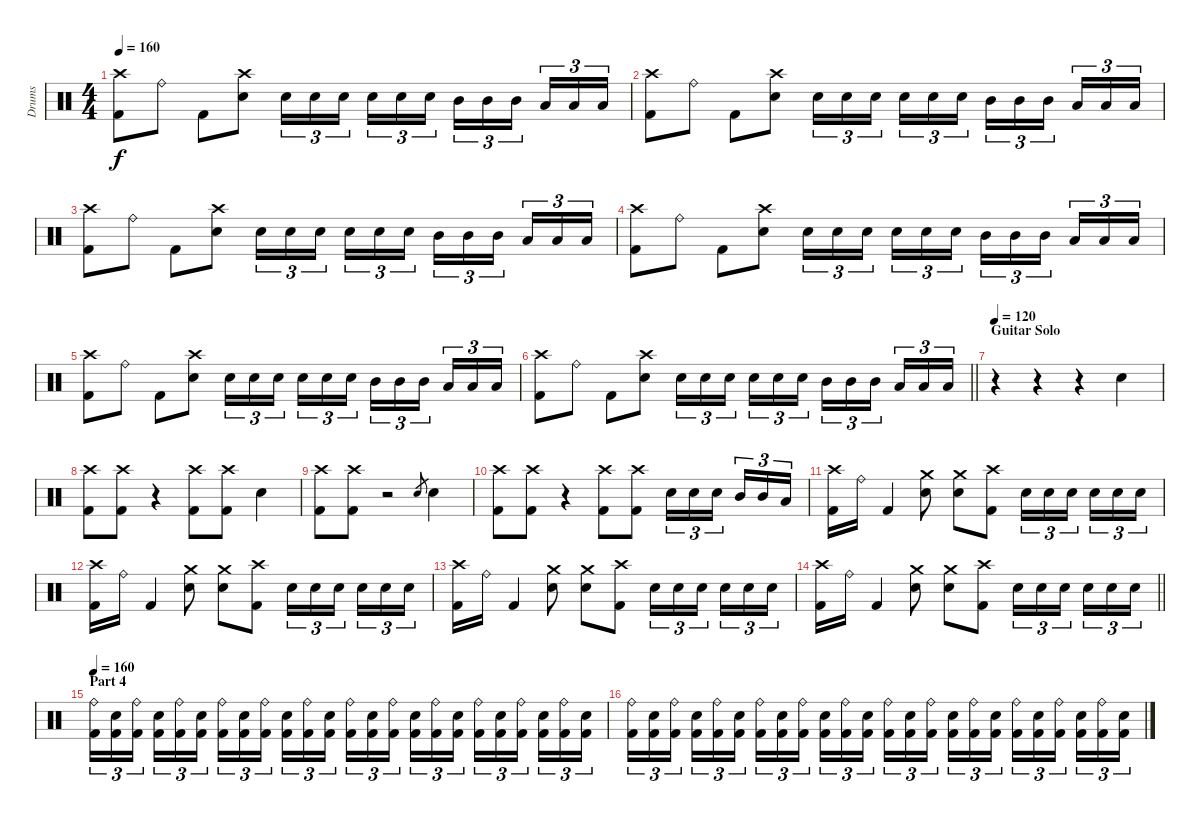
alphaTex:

\track ("Drums" "Drums") {instrument percussion}
\staff {score}
\articulation defaults
\ts (4 4)
\tempo 160
\clef neutral
\ks c
("Crash high (hit)" "Kick (hit) 2").8{dy f} "Ride (bell)".8 "Kick (hit) 2".8 ("Crash high (hit)" "Electric Snare (hit)").8 "Electric Snare (hit)".16{tu (3 2)} "Electric Snare (hit)".16{tu (3 2)} "Electric Snare (hit)".16{tu (3 2) beam splitsecondary} "Electric Snare (hit)".16{tu (3 2)} "Electric Snare (hit)".16{tu (3 2)} "Electric Snare (hit)".16{tu (3 2)} "Mid Tom (hit)".16{tu (3 2)} "Mid Tom (hit)".16{tu (3 2)} "Mid Tom (hit)".16{tu (3 2) beam splitsecondary} "Low Tom (hit)".16{tu (3 2)} "Low Tom (hit)".16{tu (3 2)} "Low Tom (hit)".16{tu (3 2)} |
("Crash high (hit)" "Kick (hit) 2").8 "Ride (bell)".8 "Kick (hit) 2".8 ("Crash high (hit)" "Electric Snare (hit)").8 "Electric Snare (hit)".16{tu (3 2)} "Electric Snare (hit)".16{tu (3 2)} "Electric Snare (hit)".16{tu (3 2) beam splitsecondary} "Electric Snare (hit)".16{tu (3 2)} "Electric Snare (hit)".16{tu (3 2)} "Electric Snare (hit)".16{tu (3 2)} "Mid Tom (hit)".16{tu (3 2)} "Mid Tom (hit)".16{tu (3 2)} "Mid Tom (hit)".16{tu (3 2) beam splitsecondary} "Low Tom (hit)".16{tu (3 2)} "Low Tom (hit)".16{tu (3 2)} "Low Tom (hit)".16{tu (3 2)} |
("Crash high (hit)" "Kick (hit) 2").8 "Ride (bell)".8 "Kick (hit) 2".8 ("Crash high (hit)" "Electric Snare (hit)").8 "Electric Snare (hit)".16{tu (3 2)} "Electric Snare (hit)".16{tu (3 2)} "Electric Snare (hit)".16{tu (3 2) beam splitsecondary} "Electric Snare (hit)".16{tu (3 2)} "Electric Snare (hit)".16{tu (3 2)} "Electric Snare (hit)".16{tu (3 2)} "Mid Tom (hit)".16{tu (3 2)} "Mid Tom (hit)".16{tu (3 2)} "Mid Tom (hit)".16{tu (3 2) beam splitsecondary} "Low Tom (hit)".16{tu (3 2)} "Low Tom (hit)".16{tu (3 2)} "Low Tom (hit)".16{tu (3 2)} |
("Crash high (hit)" "Kick (hit) 2").8 "Ride (bell)".8 "Kick (hit) 2".8 ("Crash high (hit)" "Electric Snare (hit)").8 "Electric Snare (hit)".16{tu (3 2)} "Electric Snare (hit)".16{tu (3 2)} "Electric Snare (hit)".16{tu (3 2) beam splitsecondary} "Electric Snare (hit)".16{tu (3 2)} "Electric Snare (hit)".16{tu (3 2)} "Electric Snare (hit)".16{tu (3 2)} "Mid Tom (hit)".16{tu (3 2)} "Mid Tom (hit)".16{tu (3 2)} "Mid Tom (hit)".16{tu (3 2) beam splitsecondary} "Low Tom (hit)".16{tu (3 2)} "Low Tom (hit)".16{tu (3 2)} "Low Tom (hit)".16{tu (3 2)} |
("Crash high (hit)" "Kick (hit) 2").8 "Ride (bell)".8 "Kick (hit) 2".8 ("Crash high (hit)" "Electric Snare (hit)").8 "Electric Snare (hit)".16{tu (3 2)} "Electric Snare (hit)".16{tu (3 2)} "Electric Snare (hit)".16{tu (3 2) beam splitsecondary} "Electric Snare (hit)".16{tu (3 2)} "Electric Snare (hit)".16{tu (3 2)} "Electric Snare (hit)".16{tu (3 2)} "Mid Tom (hit)".16{tu (3 2)} "Mid Tom (hit)".16{tu (3 2)} "Mid Tom (hit)".16{tu (3 2) beam splitsecondary} "Low Tom (hit)".16{tu (3 2)} "Low Tom (hit)".16{tu (3 2)} "Low Tom (hit)".16{tu (3 2)} |
\barLineRight lightlight
("Crash high (hit)" "Kick (hit) 2").8 "Ride (bell)".8 "Kick (hit) 2".8 ("Crash high (hit)" "Electric Snare (hit)").8 "Electric Snare (hit)".16{tu (3 2)} "Electric Snare (hit)".16{tu (3 2)} "Electric Snare (hit)".16{tu (3 2) beam splitsecondary} "Electric Snare (hit)".16{tu (3 2)} "Electric Snare (hit)".16{tu (3 2)} "Electric Snare (hit)".16{tu (3 2)} "Mid Tom (hit)".16{tu (3 2)} "Mid Tom (hit)".16{tu (3 2)} "Mid Tom (hit)".16{tu (3 2) beam splitsecondary} "Low Tom (hit)".16{tu (3 2)} "Low Tom (hit)".16{tu (3 2)} "Low Tom (hit)".16{tu (3 2)} |
\section ("" "Guitar Solo")
\tempo 120
r.4 r.4 r.4 "Electric Snare (hit)".4 |
("Crash high (hit)" "Kick (hit) 2").8 ("Crash high (hit)" "Kick (hit) 2").8 r.4 ("Crash high (hit)" "Kick (hit) 2").8 ("Crash high (hit)" "Kick (hit) 2").8 "Electric Snare (hit)".4 |
("Crash high (hit)" "Kick (hit) 2").8 ("Crash high (hit)" "Kick (hit) 2").8 r.2 "Electric Snare (hit)".8{gr} "Electric Snare (hit)".4 |
("Crash high (hit)" "Kick (hit) 2").8 ("Crash high (hit)" "Kick (hit) 2").8 r.4 ("Crash high (hit)" "Kick (hit) 2").8 ("Crash high (hit)" "Kick (hit) 2").8 "Electric Snare (hit)".16{tu (3 2)} "Electric Snare (hit)".16{tu (3 2)} "Electric Snare (hit)".16{tu (3 2) beam splitsecondary} "Mid Tom (hit)".16{tu (3 2)} "Mid Tom (hit)".16{tu (3 2)} "Low Tom (hit)".16{tu (3 2)} |
("Crash high (hit)" "Kick (hit) 2").16 "Ride (bell)".16 "Kick (hit) 2".4 ("Crash medium (hit)" "Electric Snare (hit)").8 ("Crash medium (hit)" "Electric Snare (hit)").8 ("Crash high (hit)" "Kick (hit) 2").8 "Electric Snare (hit)".16{tu (3 2)} "Electric Snare (hit)".16{tu (3 2)} "Electric Snare (hit)".16{tu (3 2) beam splitsecondary} "Electric Snare (hit)".16{tu (3 2)} "Electric Snare (hit)".16{tu (3 2)} "Electric Snare (hit)".16{tu (3 2)} |
("Crash high (hit)" "Kick (hit) 2").16 "Ride (bell)".16 "Kick (hit) 2".4 ("Crash medium (hit)" "Electric Snare (hit)").8 ("Crash medium (hit)" "Electric Snare (hit)").8 ("Crash high (hit)" "Kick (hit) 2").8 "Electric Snare (hit)".16{tu (3 2)} "Electric Snare (hit)".16{tu (3 2)} "Electric Snare (hit)".16{tu (3 2) beam splitsecondary} "Electric Snare (hit)".16{tu (3 2)} "Electric Snare (hit)".16{tu (3 2)} "Electric Snare (hit)".16{tu (3 2)} |
("Crash high (hit)" "Kick (hit) 2").16 "Ride (bell)".16 "Kick (hit) 2".4 ("Crash medium (hit)" "Electric Snare (hit)").8 ("Crash medium (hit)" "Electric Snare (hit)").8 ("Crash high (hit)" "Kick (hit) 2").8 "Electric Snare (hit)".16{tu (3 2)} "Electric Snare (hit)".16{tu (3 2)} "Electric Snare (hit)".16{tu (3 2) beam splitsecondary} "Electric Snare (hit)".16{tu (3 2)} "Electric Snare (hit)".16{tu (3 2)} "Electric Snare (hit)".16{tu (3 2)} |
\barLineRight lightlight
("Crash high (hit)" "Kick (hit) 2").16 "Ride (bell)".16 "Kick (hit) 2".4 ("Crash medium (hit)" "Electric Snare (hit)").8 ("Crash medium (hit)" "Electric Snare (hit)").8 ("Crash high (hit)" "Kick (hit) 2").8 "Electric Snare (hit)".16{tu (3 2)} "Electric Snare (hit)".16{tu (3 2)} "Electric Snare (hit)".16{tu (3 2) beam splitsecondary} "Electric Snare (hit)".16{tu (3 2)} "Electric Snare (hit)".16{tu (3 2)} "Electric Snare (hit)".16{tu (3 2)} |
\section ("" "Part 4")
\tempo 160
("Ride (bell)" "Kick (hit) 2").16{tu (3 2)} ("Electric Snare (hit)" "Kick (hit) 2").16{tu (3 2)} ("Ride (bell)" "Kick (hit) 2").16{tu (3 2) beam splitsecondary} ("Electric Snare (hit)" "Kick (hit) 2").16{tu (3 2)} ("Ride (bell)" "Kick (hit) 2").16{tu (3 2)} ("Electric Snare (hit)" "Kick (hit) 2").16{tu (3 2)} ("Ride (bell)" "Kick (hit) 2").16{tu (3 2)} ("Electric Snare (hit)" "Kick (hit) 2").16{tu (3 2)} ("Ride (bell)" "Kick (hit) 2").16{tu (3 2) beam splitsecondary} ("Electric Snare (hit)" "Kick (hit) 2").16{tu (3 2)} ("Ride (bell)" "Kick (hit) 2").16{tu (3 2)} ("Electric Snare (hit)" "Kick (hit) 2").16{tu (3 2)} ("Ride (bell)" "Kick (hit) 2").16{tu (3 2)} ("Electric Snare (hit)" "Kick (hit) 2").16{tu (3 2)} ("Ride (bell)" "Kick (hit) 2").16{tu (3 2) beam splitsecondary} ("Electric Snare (hit)" "Kick (hit) 2").16{tu (3 2)} ("Ride (bell)" "Kick (hit) 2").16{tu (3 2)} ("Electric Snare (hit)" "Kick (hit) 2").16{tu (3 2)} ("Ride (bell)" "Kick (hit) 2").16{tu (3 2)} ("Electric Snare (hit)" "Kick (hit) 2").16{tu (3 2)} ("Ride (bell)" "Kick (hit) 2").16{tu (3 2) beam splitsecondary} ("Electric Snare (hit)" "Kick (hit) 2").16{tu (3 2)} ("Ride (bell)" "Kick (hit) 2").16{tu (3 2)} ("Electric Snare (hit)" "Kick (hit) 2").16{tu (3 2)} |
("Ride (bell)" "Kick (hit) 2").16{tu (3 2)} ("Electric Snare (hit)" "Kick (hit) 2").16{tu (3 2)} ("Ride (bell)" "Kick (hit) 2").16{tu (3 2) beam splitsecondary} ("Electric Snare (hit)" "Kick (hit) 2").16{tu (3 2)} ("Ride (bell)" "Kick (hit) 2").16{tu (3 2)} ("Electric Snare (hit)" "Kick (hit) 2").16{tu (3 2)} ("Ride (bell)" "Kick (hit) 2").16{tu (3 2)} ("Electric Snare (hit)" "Kick (hit) 2").16{tu (3 2)} ("Ride (bell)" "Kick (hit) 2").16{tu (3 2) beam splitsecondary} ("Electric Snare (hit)" "Kick (hit) 2").16{tu (3 2)} ("Ride (bell)" "Kick (hit) 2").16{tu (3 2)} ("Electric Snare (hit)" "Kick (hit) 2").16{tu (3 2)} ("Ride (bell)" "Kick (hit) 2").16{tu (3 2)} ("Electric Snare (hit)" "Kick (hit) 2").16{tu (3 2)} ("Ride (bell)" "Kick (hit) 2").16{tu (3 2) beam splitsecondary} ("Electric Snare (hit)" "Kick (hit) 2").16{tu (3 2)} ("Ride (bell)" "Kick (hit) 2").16{tu (3 2)} ("Electric Snare (hit)" "Kick (hit) 2").16{tu (3 2)} ("Ride (bell)" "Kick (hit) 2").16{tu (3 2)} ("Electric Snare (hit)" "Kick (hit) 2").16{tu (3 2)} ("Ride (bell)" "Kick (hit) 2").16{tu (3 2) beam splitsecondary} ("Electric Snare (hit)" "Kick (hit) 2").16{tu (3 2)} ("Ride (bell)" "Kick (hit) 2").16{tu (3 2)} ("Electric Snare (hit)" "Kick (hit) 2").16{tu (3 2)}
